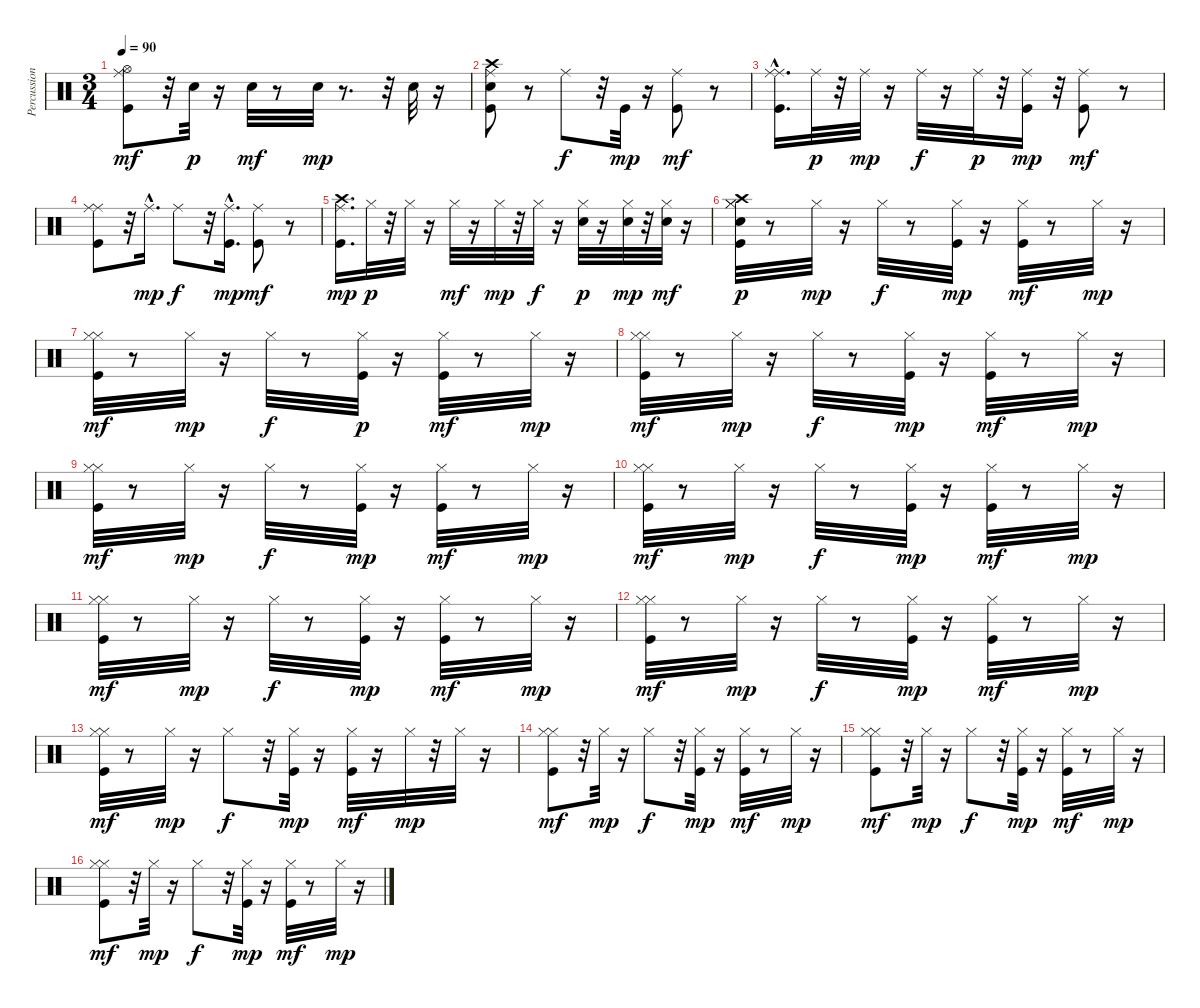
\track ("Percussion" "Percussion") {instrument percussion}
\staff {score}
\articulation defaults
\ts (3 4)
\tempo 90
\clef neutral
\ks c
("Ride (middle)" "Kick (hit)" "Hi-Hat (open)").8{dy mf} r.32 "Snare (hit) 2".32{dy p} r.16 "Snare (hit) 2".32{dy mf} r.8 "Snare (hit) 2".32{dy mp} r.8{d} r.32 "Snare (hit) 2".32 r.16 |
("Snare (hit) 2" "Kick (hit)" "Ride (middle)" "Crash high (hit)").8 r.8 "Ride (middle)".8{dy f} r.32 "Kick (hit)".32{dy mp} r.16 ("Kick (hit)" "Ride (middle)").8{dy mf} r.8 |
("Ride (middle)"{hac} "Kick (hit)" "Ride (middle)"{hac}).16{d} "Ride (middle)".32{dy p} r.32 "Ride (middle)".32{dy mp} r.16 "Ride (middle)".32{dy f} r.16 "Ride (middle)".32{dy p} r.32 ("Kick (hit)" "Ride (middle)").16{dy mp} r.32 ("Kick (hit)" "Ride (middle)").8{dy mf} r.8 |
("Ride (middle)" "Kick (hit)" "Ride (middle)").8 r.32 "Ride (middle)"{hac}.16{d dy mp} "Ride (middle)".8{dy f} r.32 ("Kick (hit)" "Ride (middle)"{hac}).16{d dy mp} ("Kick (hit)" "Ride (middle)").8{dy mf} r.8 |
("Ride (middle)" "Kick (hit)" "Crash high (hit)").16{d dy mp} "Hi-Hat (closed)".32{dy p} r.32 "Hi-Hat (closed)".32 r.16 "Hi-Hat (closed)".32{dy mf} r.16 "Hi-Hat (closed)".32{dy mp} r.32 "Hi-Hat (closed)".32{dy f} r.16 ("Snare (hit) 2" "Hi-Hat (closed)").32{dy p} r.16 ("Snare (hit) 2" "Hi-Hat (closed)").32{dy mp} r.32 ("Snare (hit) 2" "Hi-Hat (closed)").32{dy mf} r.16 |
("Snare (hit) 2" "Hi-Hat (closed)" "Kick (hit)" "Hi-Hat (closed)" "Crash high (hit)").32{dy p} r.8 "Hi-Hat (closed)".32{dy mp} r.16 "Hi-Hat (closed)".32{dy f} r.8 ("Kick (hit)" "Hi-Hat (closed)").32{dy mp} r.16 ("Kick (hit)" "Hi-Hat (closed)").32{dy mf} r.8 "Hi-Hat (closed)".32{dy mp} r.16 |
("Hi-Hat (closed)" "Kick (hit)" "Hi-Hat (closed)").32{dy mf} r.8 "Hi-Hat (closed)".32{dy mp} r.16 "Hi-Hat (closed)".32{dy f} r.8 ("Kick (hit)" "Hi-Hat (closed)").32{dy p} r.16 ("Kick (hit)" "Hi-Hat (closed)").32{dy mf} r.8 "Hi-Hat (closed)".32{dy mp} r.16 |
("Hi-Hat (closed)" "Kick (hit)" "Hi-Hat (closed)").32{dy mf} r.8 "Hi-Hat (closed)".32{dy mp} r.16 "Hi-Hat (closed)".32{dy f} r.8 ("Kick (hit)" "Hi-Hat (closed)").32{dy mp} r.16 ("Kick (hit)" "Hi-Hat (closed)").32{dy mf} r.8 "Hi-Hat (closed)".32{dy mp} r.16 |
("Hi-Hat (closed)" "Kick (hit)" "Hi-Hat (closed)").32{dy mf} r.8 "Hi-Hat (closed)".32{dy mp} r.16 "Hi-Hat (closed)".32{dy f} r.8 ("Kick (hit)" "Hi-Hat (closed)").32{dy mp} r.16 ("Kick (hit)" "Hi-Hat (closed)").32{dy mf} r.8 "Hi-Hat (closed)".32{dy mp} r.16 |
("Hi-Hat (closed)" "Kick (hit)" "Hi-Hat (closed)").32{dy mf} r.8 "Hi-Hat (closed)".32{dy mp} r.16 "Hi-Hat (closed)".32{dy f} r.8 ("Kick (hit)" "Hi-Hat (closed)").32{dy mp} r.16 ("Kick (hit)" "Hi-Hat (closed)").32{dy mf} r.8 "Hi-Hat (closed)".32{dy mp} r.16 |
("Hi-Hat (closed)" "Kick (hit)" "Hi-Hat (closed)").32{dy mf} r.8 "Hi-Hat (closed)".32{dy mp} r.16 "Hi-Hat (closed)".32{dy f} r.8 ("Kick (hit)" "Hi-Hat (closed)").32{dy mp} r.16 ("Kick (hit)" "Hi-Hat (closed)").32{dy mf} r.8 "Hi-Hat (closed)".32{dy mp} r.16 |
("Hi-Hat (closed)" "Kick (hit)" "Hi-Hat (closed)").32{dy mf} r.8 "Hi-Hat (closed)".32{dy mp} r.16 "Hi-Hat (closed)".32{dy f} r.8 ("Kick (hit)" "Hi-Hat (closed)").32{dy mp} r.16 ("Kick (hit)" "Hi-Hat (closed)").32{dy mf} r.8 "Hi-Hat (closed)".32{dy mp} r.16 |
("Hi-Hat (closed)" "Kick (hit)" "Hi-Hat (closed)").32{dy mf} r.8 "Hi-Hat (closed)".32{dy mp} r.16 "Hi-Hat (closed)".8{dy f} r.32 ("Kick (hit)" "Hi-Hat (closed)").32{dy mp} r.16 ("Kick (hit)" "Hi-Hat (closed)").32{dy mf} r.16 "Hi-Hat (closed)".32{dy mp} r.32 "Hi-Hat (closed)".32 r.16 |
("Hi-Hat (closed)" "Kick (hit)" "Hi-Hat (closed)").8{dy mf} r.32 "Hi-Hat (closed)".32{dy mp} r.16 "Hi-Hat (closed)".8{dy f} r.32 ("Kick (hit)" "Hi-Hat (closed)").32{dy mp} r.16 ("Kick (hit)" "Hi-Hat (closed)").32{dy mf} r.8 "Hi-Hat (closed)".32{dy mp} r.16 |
("Hi-Hat (closed)" "Kick (hit)" "Hi-Hat (closed)").8{dy mf} r.32 "Hi-Hat (closed)".32{dy mp} r.16 "Hi-Hat (closed)".8{dy f} r.32 ("Kick (hit)" "Hi-Hat (closed)").32{dy mp} r.16 ("Kick (hit)" "Hi-Hat (closed)").32{dy mf} r.8 "Hi-Hat (closed)".32{dy mp} r.16 |
("Hi-Hat (closed)" "Kick (hit)" "Hi-Hat (closed)").8{dy mf} r.32 "Hi-Hat (closed)".32{dy mp} r.16 "Hi-Hat (closed)".8{dy f} r.32 ("Kick (hit)" "Hi-Hat (closed)").32{dy mp} r.16 ("Kick (hit)" "Hi-Hat (closed)").32{dy mf} r.8 "Hi-Hat (closed)".32{dy mp} r.16
